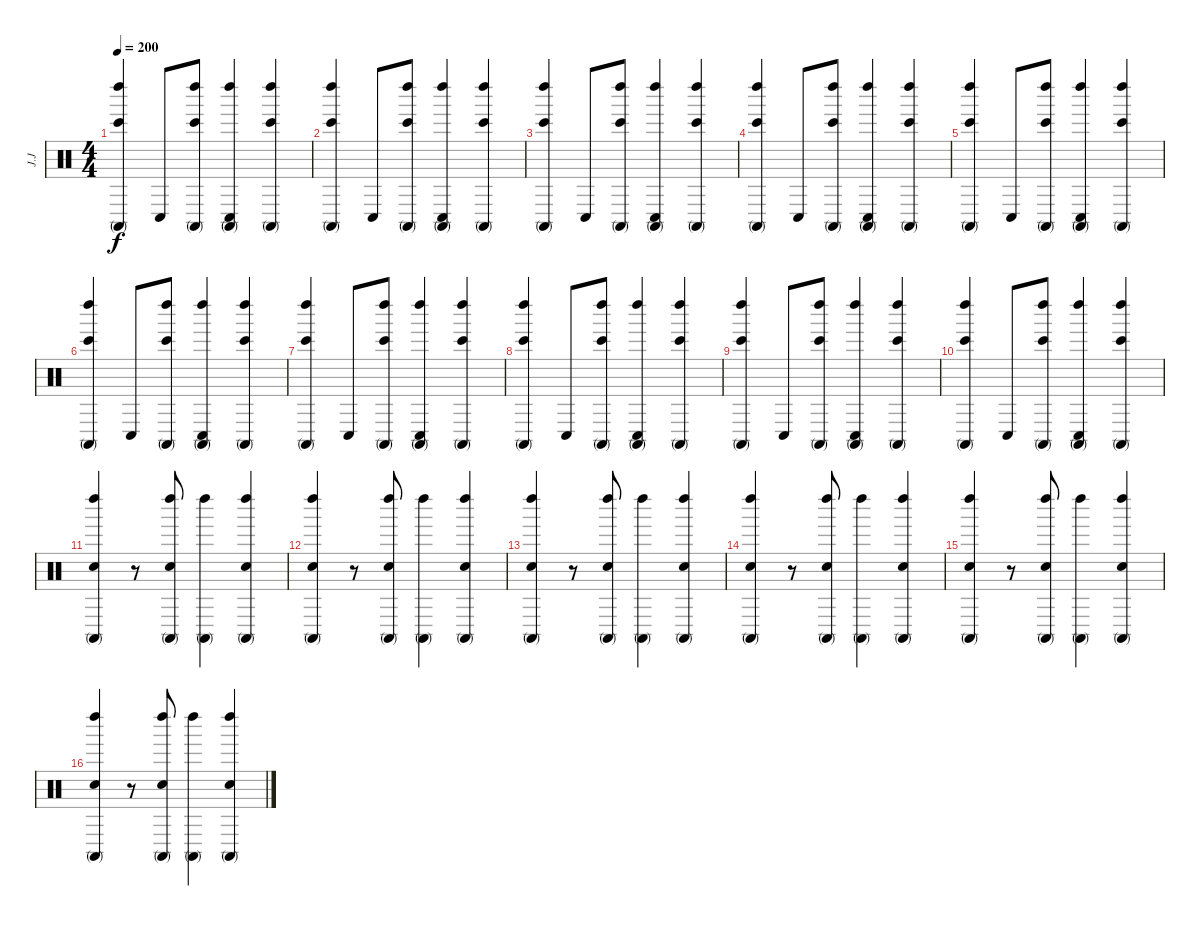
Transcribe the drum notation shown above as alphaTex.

\track ("J.J" "J.J") {instrument percussion}
\staff {score}
\articulation defaults
\ts (4 4)
\tempo 200
\clef neutral
\ks c
("Conga high (mute)" "Left Maraca (hit)" "Bongo High (hit)").4{dy f} "Conga low (hit)".8 ("Conga high (mute)" "Left Maraca (hit)" "Bongo High (hit)").8 ("Conga high (mute)" "Left Maraca (hit)" "Conga low (hit)").4 ("Conga high (mute)" "Left Maraca (hit)" "Bongo High (hit)").4 |
("Conga high (mute)" "Left Maraca (hit)" "Bongo High (hit)").4 "Conga low (hit)".8 ("Conga high (mute)" "Left Maraca (hit)" "Bongo High (hit)").8 ("Conga high (mute)" "Left Maraca (hit)" "Conga low (hit)").4 ("Conga high (mute)" "Left Maraca (hit)" "Bongo High (hit)").4 |
("Conga high (mute)" "Left Maraca (hit)" "Bongo High (hit)").4 "Conga low (hit)".8 ("Conga high (mute)" "Left Maraca (hit)" "Bongo High (hit)").8 ("Conga high (mute)" "Left Maraca (hit)" "Conga low (hit)").4 ("Conga high (mute)" "Left Maraca (hit)" "Bongo High (hit)").4 |
("Conga high (mute)" "Left Maraca (hit)" "Bongo High (hit)").4 "Conga low (hit)".8 ("Conga high (mute)" "Left Maraca (hit)" "Bongo High (hit)").8 ("Conga high (mute)" "Left Maraca (hit)" "Conga low (hit)").4 ("Conga high (mute)" "Left Maraca (hit)" "Bongo High (hit)").4 |
("Conga high (mute)" "Left Maraca (hit)" "Bongo High (hit)").4 "Conga low (hit)".8 ("Conga high (mute)" "Left Maraca (hit)" "Bongo High (hit)").8 ("Conga high (mute)" "Left Maraca (hit)" "Conga low (hit)").4 ("Conga high (mute)" "Left Maraca (hit)" "Bongo High (hit)").4 |
("Conga high (mute)" "Left Maraca (hit)" "Bongo High (hit)").4 "Conga low (hit)".8 ("Conga high (mute)" "Left Maraca (hit)" "Bongo High (hit)").8 ("Conga high (mute)" "Left Maraca (hit)" "Conga low (hit)").4 ("Conga high (mute)" "Left Maraca (hit)" "Bongo High (hit)").4 |
("Conga high (mute)" "Left Maraca (hit)" "Bongo High (hit)").4 "Conga low (hit)".8 ("Conga high (mute)" "Left Maraca (hit)" "Bongo High (hit)").8 ("Conga high (mute)" "Left Maraca (hit)" "Conga low (hit)").4 ("Conga high (mute)" "Left Maraca (hit)" "Bongo High (hit)").4 |
("Conga high (mute)" "Left Maraca (hit)" "Bongo High (hit)").4 "Conga low (hit)".8 ("Conga high (mute)" "Left Maraca (hit)" "Bongo High (hit)").8 ("Conga high (mute)" "Left Maraca (hit)" "Conga low (hit)").4 ("Conga high (mute)" "Left Maraca (hit)" "Bongo High (hit)").4 |
("Conga high (mute)" "Left Maraca (hit)" "Bongo High (hit)").4 "Conga low (hit)".8 ("Conga high (mute)" "Left Maraca (hit)" "Bongo High (hit)").8 ("Conga high (mute)" "Left Maraca (hit)" "Conga low (hit)").4 ("Conga high (mute)" "Left Maraca (hit)" "Bongo High (hit)").4 |
("Conga high (mute)" "Left Maraca (hit)" "Bongo High (hit)").4 "Conga low (hit)".8 ("Conga high (mute)" "Left Maraca (hit)" "Bongo High (hit)").8 ("Conga high (mute)" "Left Maraca (hit)" "Conga low (hit)").4 ("Conga high (mute)" "Left Maraca (hit)" "Bongo High (hit)").4 |
("Conga high (mute)" "Left Maraca (hit)" "Snare (hit) 2").4 r.8 ("Conga high (mute)" "Left Maraca (hit)" "Snare (hit) 2").8 ("Conga high (mute)" "Left Maraca (hit)").4 ("Conga high (mute)" "Left Maraca (hit)" "Snare (hit) 2").4 |
("Conga high (mute)" "Left Maraca (hit)" "Snare (hit) 2").4 r.8 ("Conga high (mute)" "Left Maraca (hit)" "Snare (hit) 2").8 ("Conga high (mute)" "Left Maraca (hit)").4 ("Conga high (mute)" "Left Maraca (hit)" "Snare (hit) 2").4 |
("Conga high (mute)" "Left Maraca (hit)" "Snare (hit) 2").4 r.8 ("Conga high (mute)" "Left Maraca (hit)" "Snare (hit) 2").8 ("Conga high (mute)" "Left Maraca (hit)").4 ("Conga high (mute)" "Left Maraca (hit)" "Snare (hit) 2").4 |
("Conga high (mute)" "Left Maraca (hit)" "Snare (hit) 2").4 r.8 ("Conga high (mute)" "Left Maraca (hit)" "Snare (hit) 2").8 ("Conga high (mute)" "Left Maraca (hit)").4 ("Conga high (mute)" "Left Maraca (hit)" "Snare (hit) 2").4 |
("Conga high (mute)" "Left Maraca (hit)" "Snare (hit) 2").4 r.8 ("Conga high (mute)" "Left Maraca (hit)" "Snare (hit) 2").8 ("Conga high (mute)" "Left Maraca (hit)").4 ("Conga high (mute)" "Left Maraca (hit)" "Snare (hit) 2").4 |
("Conga high (mute)" "Left Maraca (hit)" "Snare (hit) 2").4 r.8 ("Conga high (mute)" "Left Maraca (hit)" "Snare (hit) 2").8 ("Conga high (mute)" "Left Maraca (hit)").4 ("Conga high (mute)" "Left Maraca (hit)" "Snare (hit) 2").4
